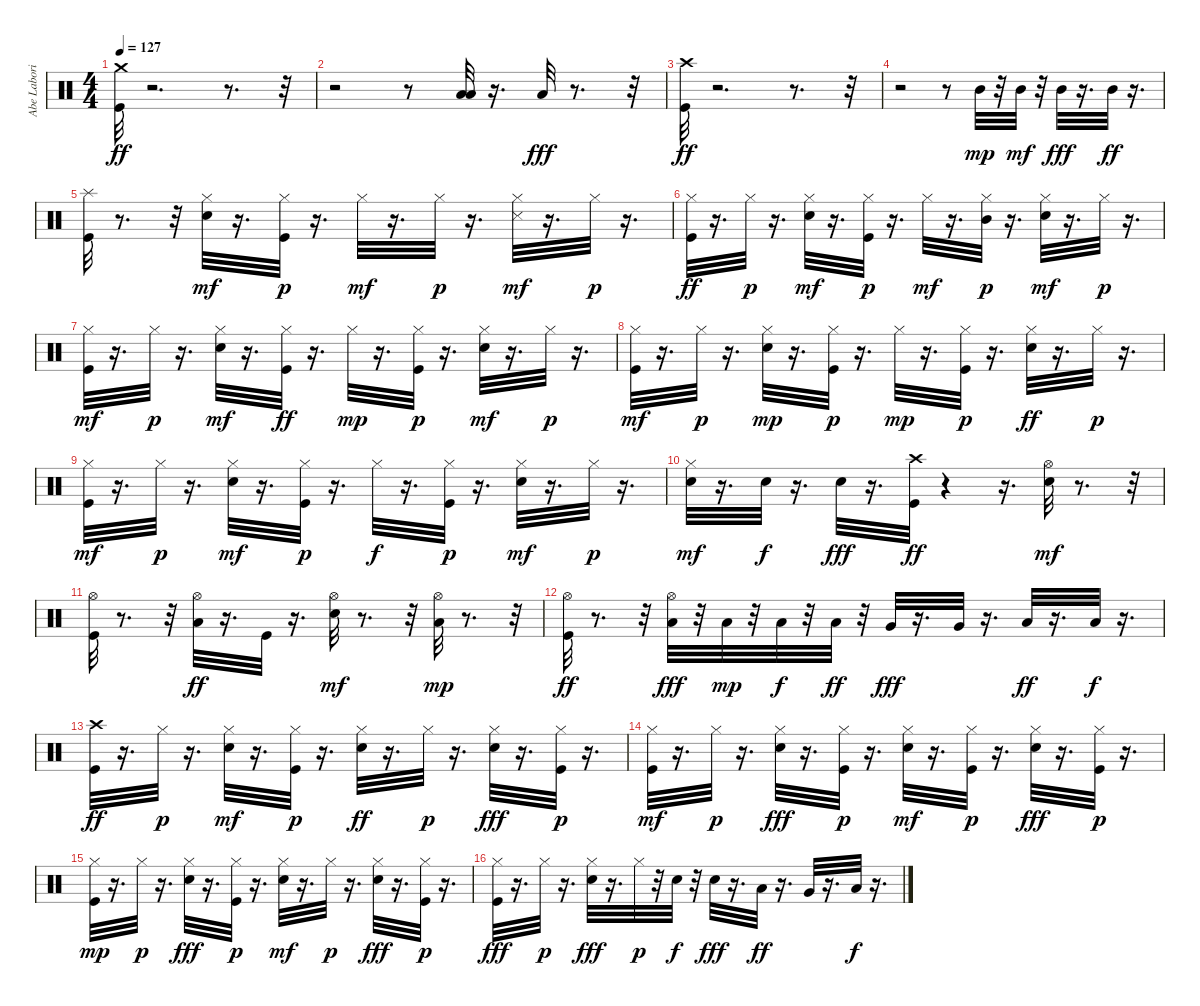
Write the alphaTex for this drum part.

\track ("Abe Laboriel, Jr." "Abe Labori") {instrument percussion}
\staff {score}
\articulation defaults
\ts (4 4)
\tempo 127
\clef neutral
\ks c
("Kick (hit)" "Crash medium (hit)").32{dy ff} r.2{d} r.8{d} r.32 |
r.2 r.8 ("Low Tom (hit)" "Low Tom (hit)").32 r.16{d} "Low Floor Tom (hit)".32{dy fff} r.8{d} r.32 |
("Crash high (hit)" "Kick (hit)").32{dy ff} r.2{d} r.8{d} r.32 |
r.2 r.8 "Mid Tom (hit)".32{dy mp} r.32 "Mid Tom (hit)".32{dy mf} r.32 "Mid Tom (hit)".32{dy fff} r.16{d} "Mid Tom (hit)".32{dy ff} r.16{d} |
("Kick (hit)" "Splash (hit)").32 r.8{d} r.32 ("Hi-Hat (closed)" "Snare (hit) 2").32{dy mf} r.16{d} ("Kick (hit)" "Hi-Hat (closed)").32{dy p} r.16{d} "Hi-Hat (closed)".32{dy mf} r.16{d} "Hi-Hat (closed)".32{dy p} r.16{d} ("Snare (side stick) 3" "Hi-Hat (closed)").32{dy mf} r.16{d} "Hi-Hat (closed)".32{dy p} r.16{d} |
("Kick (hit)" "Hi-Hat (closed)").32{dy ff} r.16{d} "Hi-Hat (closed)".32{dy p} r.16{d} ("Snare (hit) 2" "Hi-Hat (closed)").32{dy mf} r.16{d} ("Kick (hit)" "Hi-Hat (closed)").32{dy p} r.16{d} "Hi-Hat (closed)".32{dy mf} r.16{d} ("Mid Tom (hit)" "Hi-Hat (closed)").32{dy p} r.16{d} ("Snare (hit) 2" "Hi-Hat (closed)").32{dy mf} r.16{d} "Hi-Hat (closed)".32{dy p} r.16{d} |
("Kick (hit)" "Hi-Hat (closed)").32{dy mf} r.16{d} "Hi-Hat (closed)".32{dy p} r.16{d} ("Snare (hit) 2" "Hi-Hat (closed)").32{dy mf} r.16{d} ("Hi-Hat (closed)" "Kick (hit)").32{dy ff} r.16{d} "Hi-Hat (closed)".32{dy mp} r.16{d} ("Kick (hit)" "Hi-Hat (closed)").32{dy p} r.16{d} ("Snare (hit) 2" "Hi-Hat (closed)").32{dy mf} r.16{d} "Hi-Hat (closed)".32{dy p} r.16{d} |
("Kick (hit)" "Hi-Hat (closed)").32{dy mf} r.16{d} "Hi-Hat (closed)".32{dy p} r.16{d} ("Snare (hit) 2" "Hi-Hat (closed)").32{dy mp} r.16{d} ("Kick (hit)" "Hi-Hat (closed)").32{dy p} r.16{d} "Hi-Hat (closed)".32{dy mp} r.16{d} ("Kick (hit)" "Hi-Hat (closed)").32{dy p} r.16{d} ("Snare (hit) 2" "Hi-Hat (closed)").32{dy ff} r.16{d} "Hi-Hat (closed)".32{dy p} r.16{d} |
("Kick (hit)" "Hi-Hat (closed)").32{dy mf} r.16{d} "Hi-Hat (closed)".32{dy p} r.16{d} ("Snare (hit) 2" "Hi-Hat (closed)").32{dy mf} r.16{d} ("Kick (hit)" "Hi-Hat (closed)").32{dy p} r.16{d} "Hi-Hat (closed)".32{dy f} r.16{d} ("Kick (hit)" "Hi-Hat (closed)").32{dy p} r.16{d} ("Snare (hit) 2" "Hi-Hat (closed)").32{dy mf} r.16{d} "Hi-Hat (closed)".32{dy p} r.16{d} |
("Snare (hit) 2" "Hi-Hat (closed)").32{dy mf} r.16{d} "Snare (hit) 2".32{dy f} r.16{d} "Snare (hit) 2".32{dy fff} r.16{d} ("Kick (hit)" "Crash high (hit)").32{dy ff} r.4 r.16{d} ("Snare (hit) 2" "Hi-Hat (open)").32{dy mf} r.8{d} r.32 |
("Kick (hit)" "Hi-Hat (open)").32 r.8{d} r.32 ("Low Floor Tom (hit)" "Hi-Hat (open)").32{dy ff} r.16{d} "Kick (hit)".32 r.16{d} ("Snare (hit) 2" "Hi-Hat (open)").32{dy mf} r.8{d} r.32 ("Low Floor Tom (hit)" "Hi-Hat (open)").32{dy mp} r.8{d} r.32 |
("Kick (hit)" "Hi-Hat (open)").32{dy ff} r.8{d} r.32 ("Low Tom (hit)" "Hi-Hat (open)").32{dy fff} r.32 "Low Tom (hit)".32{dy mp} r.32 "Low Tom (hit)".32{dy f} r.32 "Low Tom (hit)".32{dy ff} r.32 "Very Low Tom (hit)".32{dy fff} r.16{d} "Very Low Tom (hit)".32 r.16{d} "Low Floor Tom (hit)".32{dy ff} r.16{d} "Low Floor Tom (hit)".32{dy f} r.16{d} |
("Crash high (hit)" "Kick (hit)").32{dy ff} r.16{d} "Hi-Hat (closed)".32{dy p} r.16{d} ("Snare (hit) 2" "Hi-Hat (closed)").32{dy mf} r.16{d} ("Kick (hit)" "Hi-Hat (closed)").32{dy p} r.16{d} ("Snare (hit) 2" "Hi-Hat (closed)").32{dy ff} r.16{d} "Hi-Hat (closed)".32{dy p} r.16{d} ("Snare (hit) 2" "Hi-Hat (closed)").32{dy fff} r.16{d} ("Kick (hit)" "Hi-Hat (closed)").32{dy p} r.16{d} |
("Kick (hit)" "Hi-Hat (closed)").32{dy mf} r.16{d} "Hi-Hat (closed)".32{dy p} r.16{d} ("Snare (hit) 2" "Hi-Hat (closed)").32{dy fff} r.16{d} ("Kick (hit)" "Hi-Hat (closed)").32{dy p} r.16{d} ("Snare (hit) 2" "Hi-Hat (closed)").32{dy mf} r.16{d} ("Kick (hit)" "Hi-Hat (closed)").32{dy p} r.16{d} ("Snare (hit) 2" "Hi-Hat (closed)").32{dy fff} r.16{d} ("Kick (hit)" "Hi-Hat (closed)").32{dy p} r.16{d} |
("Kick (hit)" "Hi-Hat (closed)").32{dy mp} r.16{d} "Hi-Hat (closed)".32{dy p} r.16{d} ("Snare (hit) 2" "Hi-Hat (closed)").32{dy fff} r.16{d} ("Kick (hit)" "Hi-Hat (closed)").32{dy p} r.16{d} ("Snare (hit) 2" "Hi-Hat (closed)").32{dy mf} r.16{d} "Hi-Hat (closed)".32{dy p} r.16{d} ("Snare (hit) 2" "Hi-Hat (closed)").32{dy fff} r.16{d} ("Kick (hit)" "Hi-Hat (closed)").32{dy p} r.16{d} |
("Kick (hit)" "Hi-Hat (closed)").32{dy fff} r.16{d} "Hi-Hat (closed)".32{dy p} r.16{d} ("Snare (hit) 2" "Hi-Hat (closed)").32{dy fff} r.16{d} "Hi-Hat (closed)".32{dy p} r.32 "Snare (hit) 2".32{dy f} r.32 "Snare (hit) 2".32{dy fff} r.16{d} "Low Tom (hit)".32{dy ff} r.16{d} "Very Low Tom (hit)".32 r.16{d} "Low Floor Tom (hit)".32{dy f} r.16{d}
